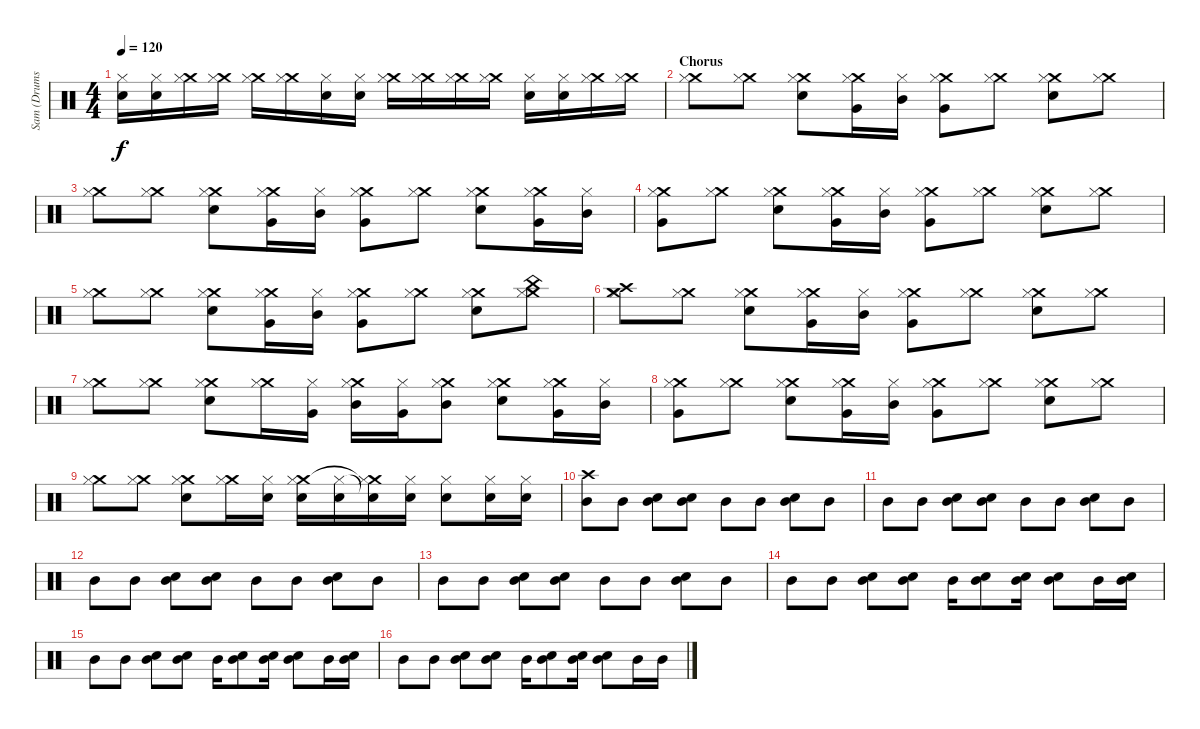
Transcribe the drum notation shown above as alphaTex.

\track ("Sam (Drums)" "Sam (Drums") {instrument percussion}
\staff {score}
\articulation defaults
\ts (4 4)
\tempo 120
\clef neutral
\ks c
("Snare (hit) 2" "Hi-Hat (closed)").16{dy f} ("Snare (hit) 2" "Hi-Hat (closed)").16 ("Crash medium (hit)" "Hi-Hat (closed)").16 ("Crash medium (hit)" "Hi-Hat (closed)").16 ("Crash medium (hit)" "Hi-Hat (closed)").16 ("Crash medium (hit)" "Hi-Hat (closed)").16 ("Snare (hit) 2" "Hi-Hat (closed)").16 ("Snare (hit) 2" "Hi-Hat (closed)").16 ("Crash medium (hit)" "Hi-Hat (closed)").16 ("Crash medium (hit)" "Hi-Hat (closed)").16 ("Crash medium (hit)" "Hi-Hat (closed)").16 ("Crash medium (hit)" "Hi-Hat (closed)").16 ("Snare (hit) 2" "Hi-Hat (closed)").16 ("Snare (hit) 2" "Hi-Hat (closed)").16 ("Crash medium (hit)" "Hi-Hat (closed)").16 ("Crash medium (hit)" "Hi-Hat (closed)").16 |
\section ("" "Chorus")
("Crash medium (hit)" "Hi-Hat (closed)").8 ("Crash medium (hit)" "Hi-Hat (closed)").8 ("Crash medium (hit)" "Snare (hit) 2" "Hi-Hat (closed)").8 ("Crash medium (hit)" "Very Low Tom (hit)" "Hi-Hat (closed)").16 ("Mid Tom (hit)" "Hi-Hat (closed)").16 ("Crash medium (hit)" "Very Low Tom (hit)" "Hi-Hat (closed)").8 ("Crash medium (hit)" "Hi-Hat (closed)").8 ("Crash medium (hit)" "Snare (hit) 2" "Hi-Hat (closed)").8 ("Crash medium (hit)" "Hi-Hat (closed)").8 |
("Crash medium (hit)" "Hi-Hat (closed)").8 ("Crash medium (hit)" "Hi-Hat (closed)").8 ("Crash medium (hit)" "Snare (hit) 2" "Hi-Hat (closed)").8 ("Crash medium (hit)" "Very Low Tom (hit)" "Hi-Hat (closed)").16 ("Mid Tom (hit)" "Hi-Hat (closed)").16 ("Crash medium (hit)" "Very Low Tom (hit)" "Hi-Hat (closed)").8 ("Crash medium (hit)" "Hi-Hat (closed)").8 ("Crash medium (hit)" "Snare (hit) 2" "Hi-Hat (closed)").8 ("Crash medium (hit)" "Very Low Tom (hit)" "Hi-Hat (closed)").16 ("Mid Tom (hit)" "Hi-Hat (closed)").16 |
("Crash medium (hit)" "Very Low Tom (hit)" "Hi-Hat (closed)").8 ("Crash medium (hit)" "Hi-Hat (closed)").8 ("Crash medium (hit)" "Snare (hit) 2" "Hi-Hat (closed)").8 ("Crash medium (hit)" "Very Low Tom (hit)" "Hi-Hat (closed)").16 ("Mid Tom (hit)" "Hi-Hat (closed)").16 ("Crash medium (hit)" "Very Low Tom (hit)" "Hi-Hat (closed)").8 ("Crash medium (hit)" "Hi-Hat (closed)").8 ("Crash medium (hit)" "Snare (hit) 2" "Hi-Hat (closed)").8 ("Crash medium (hit)" "Hi-Hat (closed)").8 |
("Crash medium (hit)" "Hi-Hat (closed)").8 ("Crash medium (hit)" "Hi-Hat (closed)").8 ("Crash medium (hit)" "Snare (hit) 2" "Hi-Hat (closed)").8 ("Crash medium (hit)" "Very Low Tom (hit)" "Hi-Hat (closed)").16 ("Mid Tom (hit)" "Hi-Hat (closed)").16 ("Crash medium (hit)" "Very Low Tom (hit)" "Hi-Hat (closed)").8 ("Crash medium (hit)" "Hi-Hat (closed)").8 ("Crash medium (hit)" "Snare (hit) 2" "Hi-Hat (closed)").8 ("China (hit)" "Crash medium (hit)" "Hi-Hat (closed)").8 |
("Crash high (hit)" "Crash medium (hit)" "Hi-Hat (closed)").8 ("Crash medium (hit)" "Hi-Hat (closed)").8 ("Crash medium (hit)" "Snare (hit) 2" "Hi-Hat (closed)").8 ("Crash medium (hit)" "Very Low Tom (hit)" "Hi-Hat (closed)").16 ("Mid Tom (hit)" "Hi-Hat (closed)").16 ("Crash medium (hit)" "Very Low Tom (hit)" "Hi-Hat (closed)").8 ("Crash medium (hit)" "Hi-Hat (closed)").8 ("Crash medium (hit)" "Snare (hit) 2" "Hi-Hat (closed)").8 ("Crash medium (hit)" "Hi-Hat (closed)").8 |
("Crash medium (hit)" "Hi-Hat (closed)").8 ("Crash medium (hit)" "Hi-Hat (closed)").8 ("Crash medium (hit)" "Snare (hit) 2" "Hi-Hat (closed)").8 ("Crash medium (hit)" "Hi-Hat (closed)").16 ("Very Low Tom (hit)" "Hi-Hat (closed)").16 ("Crash medium (hit)" "Mid Tom (hit)" "Hi-Hat (closed)").16 ("Very Low Tom (hit)" "Hi-Hat (closed)").16 ("Crash medium (hit)" "Mid Tom (hit)" "Hi-Hat (closed)").8 ("Crash medium (hit)" "Snare (hit) 2" "Hi-Hat (closed)").8 ("Crash medium (hit)" "Very Low Tom (hit)" "Hi-Hat (closed)").16 ("Mid Tom (hit)" "Hi-Hat (closed)").16 |
("Crash medium (hit)" "Very Low Tom (hit)" "Hi-Hat (closed)").8 ("Crash medium (hit)" "Hi-Hat (closed)").8 ("Crash medium (hit)" "Snare (hit) 2" "Hi-Hat (closed)").8 ("Crash medium (hit)" "Very Low Tom (hit)" "Hi-Hat (closed)").16 ("Mid Tom (hit)" "Hi-Hat (closed)").16 ("Crash medium (hit)" "Very Low Tom (hit)" "Hi-Hat (closed)").8 ("Crash medium (hit)" "Hi-Hat (closed)").8 ("Crash medium (hit)" "Snare (hit) 2" "Hi-Hat (closed)").8 ("Crash medium (hit)" "Hi-Hat (closed)").8 |
("Crash medium (hit)" "Hi-Hat (closed)").8 ("Crash medium (hit)" "Hi-Hat (closed)").8 ("Crash medium (hit)" "Snare (hit) 2" "Hi-Hat (closed)").8 ("Crash medium (hit)" "Hi-Hat (closed)").16 ("Snare (hit) 2" "Hi-Hat (closed)").16 ("Crash medium (hit)" "Snare (hit) 2" "Hi-Hat (closed)").16 ("Snare (hit) 2" "Hi-Hat (closed)").16 ("Crash medium (hit)" "Snare (hit) 2"{t} "Hi-Hat (closed)"{t}).16 ("Snare (hit) 2" "Hi-Hat (closed)").16 ("Snare (hit) 2" "Hi-Hat (closed)").8 ("Snare (hit) 2" "Hi-Hat (closed)").16 ("Snare (hit) 2" "Hi-Hat (closed)").16 |
("Crash high (hit)" "Mid Tom (hit)").8 "Mid Tom (hit)".8 ("Snare (hit) 2" "Mid Tom (hit)").8 ("Snare (hit) 2" "Mid Tom (hit)").8 "Mid Tom (hit)".8 "Mid Tom (hit)".8 ("Snare (hit) 2" "Mid Tom (hit)").8 "Mid Tom (hit)".8 |
"Mid Tom (hit)".8 "Mid Tom (hit)".8 ("Snare (hit) 2" "Mid Tom (hit)").8 ("Snare (hit) 2" "Mid Tom (hit)").8 "Mid Tom (hit)".8 "Mid Tom (hit)".8 ("Snare (hit) 2" "Mid Tom (hit)").8 "Mid Tom (hit)".8 |
"Mid Tom (hit)".8 "Mid Tom (hit)".8 ("Snare (hit) 2" "Mid Tom (hit)").8 ("Snare (hit) 2" "Mid Tom (hit)").8 "Mid Tom (hit)".8 "Mid Tom (hit)".8 ("Snare (hit) 2" "Mid Tom (hit)").8 "Mid Tom (hit)".8 |
"Mid Tom (hit)".8 "Mid Tom (hit)".8 ("Snare (hit) 2" "Mid Tom (hit)").8 ("Snare (hit) 2" "Mid Tom (hit)").8 "Mid Tom (hit)".8 "Mid Tom (hit)".8 ("Snare (hit) 2" "Mid Tom (hit)").8 "Mid Tom (hit)".8 |
"Mid Tom (hit)".8 "Mid Tom (hit)".8 ("Snare (hit) 2" "Mid Tom (hit)").8 ("Snare (hit) 2" "Mid Tom (hit)").8 "Mid Tom (hit)".16 ("Snare (hit) 2" "Mid Tom (hit)").8 ("Snare (hit) 2" "Mid Tom (hit)").16 ("Snare (hit) 2" "Mid Tom (hit)").8 "Mid Tom (hit)".16 ("Snare (hit) 2" "Mid Tom (hit)").16 |
"Mid Tom (hit)".8 "Mid Tom (hit)".8 ("Snare (hit) 2" "Mid Tom (hit)").8 ("Snare (hit) 2" "Mid Tom (hit)").8 "Mid Tom (hit)".16 ("Snare (hit) 2" "Mid Tom (hit)").8 ("Snare (hit) 2" "Mid Tom (hit)").16 ("Snare (hit) 2" "Mid Tom (hit)").8 "Mid Tom (hit)".16 ("Snare (hit) 2" "Mid Tom (hit)").16 |
"Mid Tom (hit)".8 "Mid Tom (hit)".8 ("Snare (hit) 2" "Mid Tom (hit)").8 ("Snare (hit) 2" "Mid Tom (hit)").8 "Mid Tom (hit)".16 ("Snare (hit) 2" "Mid Tom (hit)").8 ("Snare (hit) 2" "Mid Tom (hit)").16 ("Snare (hit) 2" "Mid Tom (hit)").8 "Mid Tom (hit)".16 "Mid Tom (hit)".16
